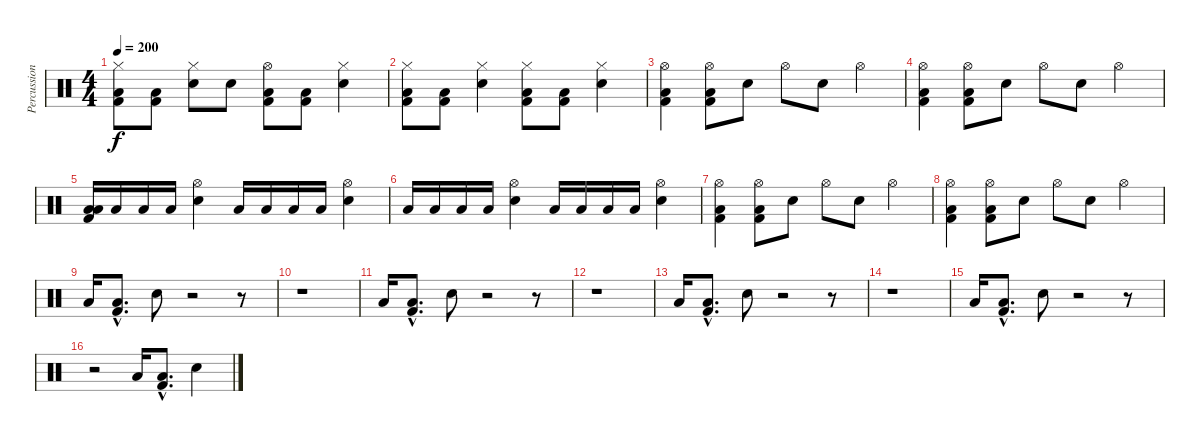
\track ("Percussions" "Percussion") {instrument percussion}
\staff {score}
\articulation defaults
\ts (4 4)
\tempo 200
\clef neutral
\ks c
("Kick (hit) 2" "Low Floor Tom (hit)" "Hi-Hat (closed)").8{dy f} ("Kick (hit) 2" "Low Floor Tom (hit)").8 ("Snare (hit) 2" "Hi-Hat (closed)").8 "Snare (hit) 2".8 ("Kick (hit) 2" "Low Floor Tom (hit)" "Hi-Hat (open)").8 ("Kick (hit) 2" "Low Floor Tom (hit)").8 ("Snare (hit) 2" "Hi-Hat (closed)").4 |
("Kick (hit) 2" "Low Floor Tom (hit)" "Hi-Hat (closed)").8 ("Kick (hit) 2" "Low Floor Tom (hit)").8 ("Snare (hit) 2" "Hi-Hat (closed)").4 ("Kick (hit) 2" "Low Floor Tom (hit)" "Hi-Hat (closed)").8 ("Kick (hit) 2" "Low Floor Tom (hit)").8 ("Snare (hit) 2" "Hi-Hat (closed)").4 |
("Kick (hit) 2" "Low Floor Tom (hit)" "Hi-Hat (open)").4 ("Kick (hit) 2" "Low Floor Tom (hit)" "Hi-Hat (open)").8 "Snare (hit) 2".8 "Hi-Hat (open)".8 "Snare (hit) 2".8 "Hi-Hat (open)".4 |
("Kick (hit) 2" "Low Floor Tom (hit)" "Hi-Hat (open)").4 ("Kick (hit) 2" "Low Floor Tom (hit)" "Hi-Hat (open)").8 "Snare (hit) 2".8 "Hi-Hat (open)".8 "Snare (hit) 2".8 "Hi-Hat (open)".4 |
("Kick (hit) 2" "Low Floor Tom (hit)" "Low Tom (hit)").16 "Low Tom (hit)".16 "Low Tom (hit)".16 "Low Tom (hit)".16 ("Snare (hit) 2" "Hi-Hat (open)").4 "Low Tom (hit)".16 "Low Tom (hit)".16 "Low Tom (hit)".16 "Low Tom (hit)".16 ("Snare (hit) 2" "Hi-Hat (open)").4 |
"Low Tom (hit)".16 "Low Tom (hit)".16 "Low Tom (hit)".16 "Low Tom (hit)".16 ("Snare (hit) 2" "Hi-Hat (open)").4 "Low Tom (hit)".16 "Low Tom (hit)".16 "Low Tom (hit)".16 "Low Tom (hit)".16 ("Snare (hit) 2" "Hi-Hat (open)").4 |
("Kick (hit) 2" "Low Floor Tom (hit)" "Hi-Hat (open)").4 ("Kick (hit) 2" "Low Floor Tom (hit)" "Hi-Hat (open)").8 "Snare (hit) 2".8 "Hi-Hat (open)".8 "Snare (hit) 2".8 "Hi-Hat (open)".4 |
("Kick (hit) 2" "Low Floor Tom (hit)" "Hi-Hat (open)").4 ("Kick (hit) 2" "Low Floor Tom (hit)" "Hi-Hat (open)").8 "Snare (hit) 2".8 "Hi-Hat (open)".8 "Snare (hit) 2".8 "Hi-Hat (open)".4 |
"Low Tom (hit)".16 ("Kick (hit) 2"{hac} "Low Floor Tom (hit)"{hac}).8{d} "Snare (hit) 2".8 r.2 r.8 |
r.1 |
"Low Tom (hit)".16 ("Kick (hit) 2"{hac} "Low Floor Tom (hit)"{hac}).8{d} "Snare (hit) 2".8 r.2 r.8 |
r.1 |
"Low Tom (hit)".16 ("Kick (hit) 2"{hac} "Low Floor Tom (hit)"{hac}).8{d} "Snare (hit) 2".8 r.2 r.8 |
r.1 |
"Low Tom (hit)".16 ("Kick (hit) 2"{hac} "Low Floor Tom (hit)"{hac}).8{d} "Snare (hit) 2".8 r.2 r.8 |
r.2 "Low Tom (hit)".16 ("Kick (hit) 2"{hac} "Low Floor Tom (hit)"{hac}).8{d} "Snare (hit) 2".4
